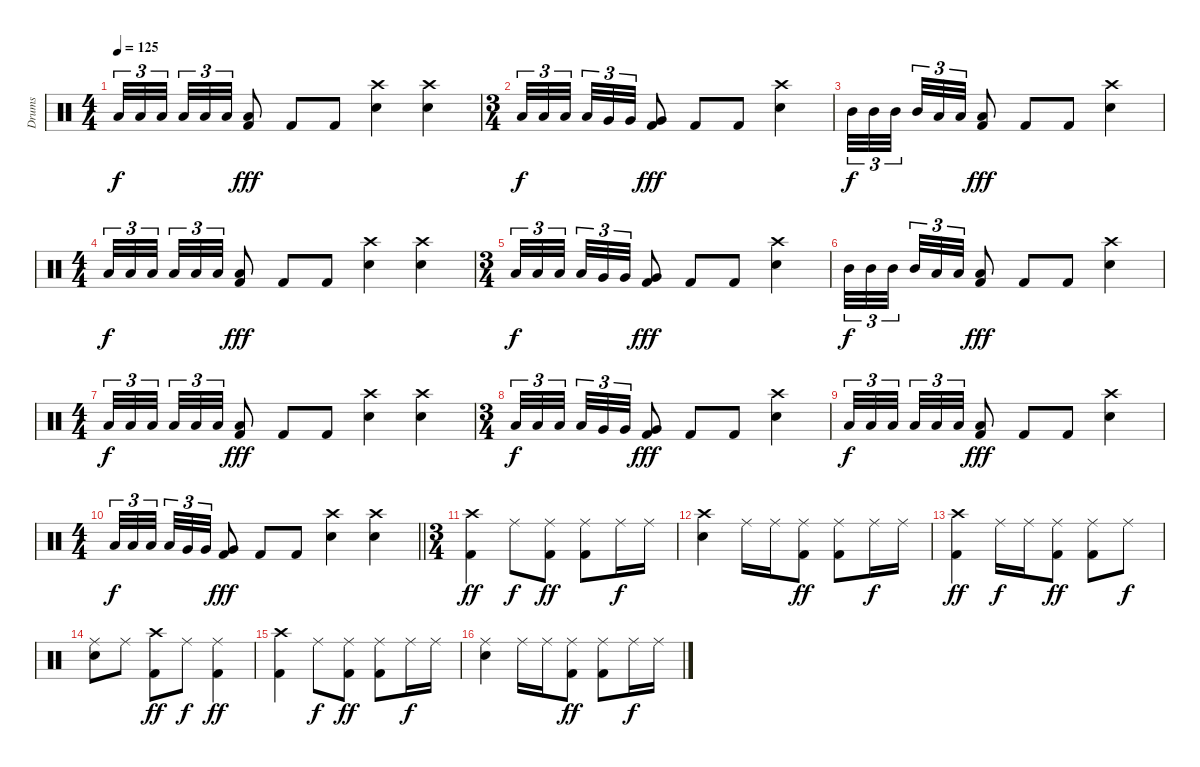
\track ("Drums" "Drums") {instrument percussion}
\staff {score}
\articulation defaults
\ts (4 4)
\tempo 125
\clef neutral
\ks c "Low Floor Tom (hit)".32{tu (3 2) dy f} "Low Floor Tom (hit)".32{tu (3 2)} "Low Floor Tom (hit)".32{tu (3 2) beam splitsecondary} "Low Floor Tom (hit)".32{tu (3 2)} "Low Floor Tom (hit)".32{tu (3 2)} "Low Floor Tom (hit)".32{tu (3 2)}
("Low Floor Tom (hit)" "Kick (hit) 2").8{dy fff} "Kick (hit) 2".8 "Kick (hit) 2".8 ("Crash high (hit)" "Snare (hit) 2").4 ("Crash high (hit)" "Snare (hit) 2").4 |
\ts (3 4)
"Low Floor Tom (hit)".32{tu (3 2) dy f} "Low Floor Tom (hit)".32{tu (3 2)} "Low Floor Tom (hit)".32{tu (3 2) beam splitsecondary} "Low Floor Tom (hit)".32{tu (3 2)} "Very Low Tom (hit)".32{tu (3 2)} "Very Low Tom (hit)".32{tu (3 2)} ("Very Low Tom (hit)" "Kick (hit) 2").8{dy fff} "Kick (hit) 2".8 "Kick (hit) 2".8 ("Crash high (hit)" "Snare (hit) 2").4 |
"Mid Tom (hit)".32{tu (3 2) dy f} "Mid Tom (hit)".32{tu (3 2)} "Mid Tom (hit)".32{tu (3 2) beam splitsecondary} "Mid Tom (hit)".32{tu (3 2)} "Low Tom (hit)".32{tu (3 2)} "Low Tom (hit)".32{tu (3 2)} ("Low Tom (hit)" "Kick (hit) 2").8{dy fff} "Kick (hit) 2".8 "Kick (hit) 2".8 ("Crash high (hit)" "Snare (hit) 2").4 |
\ts (4 4)
"Low Tom (hit)".32{tu (3 2) dy f} "Low Tom (hit)".32{tu (3 2)} "Low Tom (hit)".32{tu (3 2) beam splitsecondary} "Low Tom (hit)".32{tu (3 2)} "Low Floor Tom (hit)".32{tu (3 2)} "Low Floor Tom (hit)".32{tu (3 2)} ("Low Floor Tom (hit)" "Kick (hit) 2").8{dy fff} "Kick (hit) 2".8 "Kick (hit) 2".8 ("Crash high (hit)" "Snare (hit) 2").4 ("Crash high (hit)" "Snare (hit) 2").4 |
\ts (3 4)
"Low Floor Tom (hit)".32{tu (3 2) dy f} "Low Floor Tom (hit)".32{tu (3 2)} "Low Floor Tom (hit)".32{tu (3 2) beam splitsecondary} "Low Floor Tom (hit)".32{tu (3 2)} "Very Low Tom (hit)".32{tu (3 2)} "Very Low Tom (hit)".32{tu (3 2)} ("Very Low Tom (hit)" "Kick (hit) 2").8{dy fff} "Kick (hit) 2".8 "Kick (hit) 2".8 ("Crash high (hit)" "Snare (hit) 2").4 |
"Mid Tom (hit)".32{tu (3 2) dy f} "Mid Tom (hit)".32{tu (3 2)} "Mid Tom (hit)".32{tu (3 2) beam splitsecondary} "Mid Tom (hit)".32{tu (3 2)} "Low Tom (hit)".32{tu (3 2)} "Low Tom (hit)".32{tu (3 2)} ("Low Tom (hit)" "Kick (hit) 2").8{dy fff} "Kick (hit) 2".8 "Kick (hit) 2".8 ("Crash high (hit)" "Snare (hit) 2").4 |
\ts (4 4)
"Low Tom (hit)".32{tu (3 2) dy f} "Low Tom (hit)".32{tu (3 2)} "Low Tom (hit)".32{tu (3 2) beam splitsecondary} "Low Tom (hit)".32{tu (3 2)} "Low Floor Tom (hit)".32{tu (3 2)} "Low Floor Tom (hit)".32{tu (3 2)} ("Low Floor Tom (hit)" "Kick (hit) 2").8{dy fff} "Kick (hit) 2".8 "Kick (hit) 2".8 ("Crash high (hit)" "Snare (hit) 2").4 ("Crash high (hit)" "Snare (hit) 2").4 |
\ts (3 4)
"Low Floor Tom (hit)".32{tu (3 2) dy f} "Low Floor Tom (hit)".32{tu (3 2)} "Low Floor Tom (hit)".32{tu (3 2) beam splitsecondary} "Low Floor Tom (hit)".32{tu (3 2)} "Very Low Tom (hit)".32{tu (3 2)} "Very Low Tom (hit)".32{tu (3 2)} ("Very Low Tom (hit)" "Kick (hit) 2").8{dy fff} "Kick (hit) 2".8 "Kick (hit) 2".8 ("Crash high (hit)" "Snare (hit) 2").4 |
"Low Tom (hit)".32{tu (3 2) dy f} "Low Tom (hit)".32{tu (3 2)} "Low Tom (hit)".32{tu (3 2) beam splitsecondary} "Low Tom (hit)".32{tu (3 2)} "Low Floor Tom (hit)".32{tu (3 2)} "Low Floor Tom (hit)".32{tu (3 2)} ("Low Floor Tom (hit)" "Kick (hit) 2").8{dy fff} "Kick (hit) 2".8 "Kick (hit) 2".8 ("Crash high (hit)" "Snare (hit) 2").4 |
\ts (4 4)
\barLineRight lightlight "Low Floor Tom (hit)".32{tu (3 2) dy f} "Low Floor Tom (hit)".32{tu (3 2)} "Low Floor Tom (hit)".32{tu (3 2) beam splitsecondary} "Low Floor Tom (hit)".32{tu (3 2)} "Very Low Tom (hit)".32{tu (3 2)} "Very Low Tom (hit)".32{tu (3 2)}
("Very Low Tom (hit)" "Kick (hit) 2").8{dy fff} "Kick (hit) 2".8 "Kick (hit) 2".8 ("Crash high (hit)" "Snare (hit) 2").4 ("Crash high (hit)" "Snare (hit) 2").4 |
\ts (3 4)
\section ("" "")
("Crash high (hit)" "Kick (hit) 2").4{dy ff} "Ride (middle)".8{dy f} ("Ride (middle)" "Kick (hit) 2").8{dy ff} ("Ride (middle)" "Kick (hit) 2").8 "Ride (middle)".16{dy f} "Ride (middle)".16 |
("Crash high (hit)" "Snare (hit) 2").4 "Ride (middle)".16 "Ride (middle)".16 ("Ride (middle)" "Kick (hit) 2").8{dy ff} ("Ride (middle)" "Kick (hit) 2").8 "Ride (middle)".16{dy f} "Ride (middle)".16 |
("Crash high (hit)" "Kick (hit) 2").4{dy ff} "Ride (middle)".16{dy f} "Ride (middle)".16 ("Ride (middle)" "Kick (hit) 2").8{dy ff} ("Ride (middle)" "Kick (hit) 2").8 "Ride (middle)".8{dy f} |
("Ride (middle)" "Snare (hit) 2").8 "Ride (middle)".8 ("Crash high (hit)" "Kick (hit) 2").8{dy ff} "Ride (middle)".8{dy f} ("Ride (middle)" "Kick (hit) 2").4{dy ff} |
("Crash high (hit)" "Kick (hit) 2").4 "Ride (middle)".8{dy f} ("Ride (middle)" "Kick (hit) 2").8{dy ff} ("Ride (middle)" "Kick (hit) 2").8 "Ride (middle)".16{dy f} "Ride (middle)".16 |
("Ride (middle)" "Snare (hit) 2").4 "Ride (middle)".16 "Ride (middle)".16 ("Ride (middle)" "Kick (hit) 2").8{dy ff} ("Ride (middle)" "Kick (hit) 2").8 "Ride (middle)".16{dy f} "Ride (middle)".16
